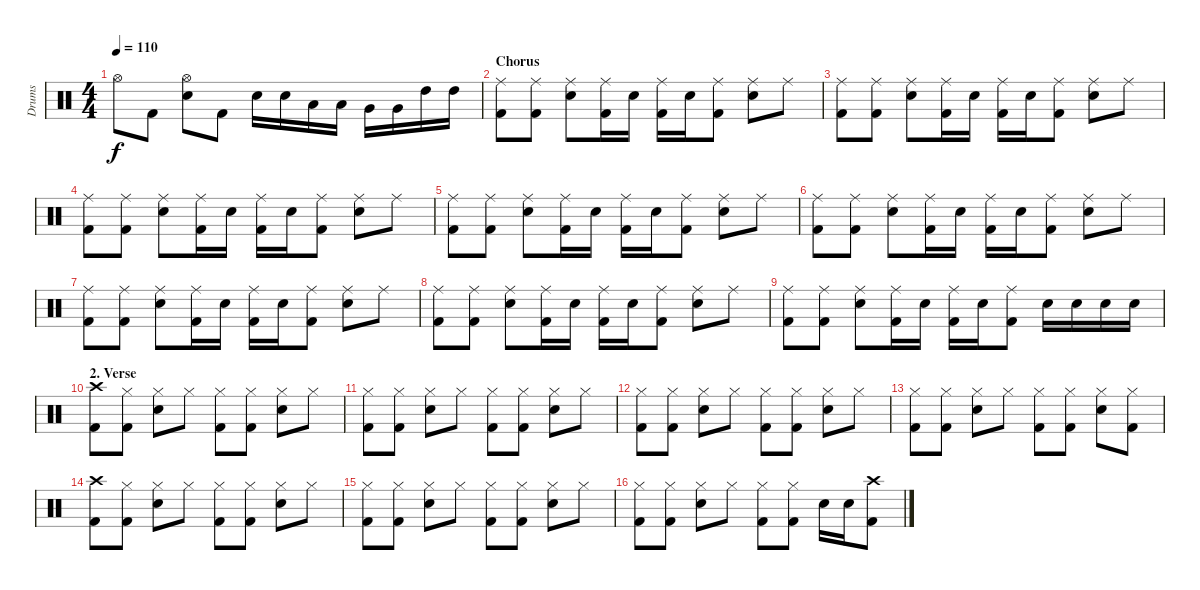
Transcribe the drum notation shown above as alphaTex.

\track ("Drums" "Drums") {instrument percussion}
\staff {score}
\articulation defaults
\ts (4 4)
\tempo 110
\clef neutral
\ks c "Hi-Hat (open)".8{dy f} "Kick (hit) 2".8
("Hi-Hat (open)" "Electric Snare (hit)").8 "Kick (hit) 2".8 "Electric Snare (hit)".16 "Electric Snare (hit)".16 "Low Tom (hit)".16 "Low Tom (hit)".16 "Very Low Tom (hit)".16 "Very Low Tom (hit)".16 "High Tom (hit)".16 "High Tom (hit)".16 |
\section ("" "Chorus")
("Ride (middle)" "Kick (hit) 2").8 ("Ride (middle)" "Kick (hit) 2").8 ("Ride (middle)" "Electric Snare (hit)").8 ("Ride (middle)" "Kick (hit) 2").16 "Electric Snare (hit)".16 ("Ride (middle)" "Kick (hit) 2").16 "Electric Snare (hit)".16 ("Ride (middle)" "Kick (hit) 2").8 ("Ride (middle)" "Electric Snare (hit)").8 "Ride (middle)".8 |
("Ride (middle)" "Kick (hit) 2").8 ("Ride (middle)" "Kick (hit) 2").8 ("Ride (middle)" "Electric Snare (hit)").8 ("Ride (middle)" "Kick (hit) 2").16 "Electric Snare (hit)".16 ("Ride (middle)" "Kick (hit) 2").16 "Electric Snare (hit)".16 ("Ride (middle)" "Kick (hit) 2").8 ("Ride (middle)" "Electric Snare (hit)").8 "Ride (middle)".8 |
("Ride (middle)" "Kick (hit) 2").8 ("Ride (middle)" "Kick (hit) 2").8 ("Ride (middle)" "Electric Snare (hit)").8 ("Ride (middle)" "Kick (hit) 2").16 "Electric Snare (hit)".16 ("Ride (middle)" "Kick (hit) 2").16 "Electric Snare (hit)".16 ("Ride (middle)" "Kick (hit) 2").8 ("Ride (middle)" "Electric Snare (hit)").8 "Ride (middle)".8 |
("Ride (middle)" "Kick (hit) 2").8 ("Ride (middle)" "Kick (hit) 2").8 ("Ride (middle)" "Electric Snare (hit)").8 ("Ride (middle)" "Kick (hit) 2").16 "Electric Snare (hit)".16 ("Ride (middle)" "Kick (hit) 2").16 "Electric Snare (hit)".16 ("Ride (middle)" "Kick (hit) 2").8 ("Ride (middle)" "Electric Snare (hit)").8 "Ride (middle)".8 |
("Ride (middle)" "Kick (hit) 2").8 ("Ride (middle)" "Kick (hit) 2").8 ("Ride (middle)" "Electric Snare (hit)").8 ("Ride (middle)" "Kick (hit) 2").16 "Electric Snare (hit)".16 ("Ride (middle)" "Kick (hit) 2").16 "Electric Snare (hit)".16 ("Ride (middle)" "Kick (hit) 2").8 ("Ride (middle)" "Electric Snare (hit)").8 "Ride (middle)".8 |
("Ride (middle)" "Kick (hit) 2").8 ("Ride (middle)" "Kick (hit) 2").8 ("Ride (middle)" "Electric Snare (hit)").8 ("Ride (middle)" "Kick (hit) 2").16 "Electric Snare (hit)".16 ("Ride (middle)" "Kick (hit) 2").16 "Electric Snare (hit)".16 ("Ride (middle)" "Kick (hit) 2").8 ("Ride (middle)" "Electric Snare (hit)").8 "Ride (middle)".8 |
("Ride (middle)" "Kick (hit) 2").8 ("Ride (middle)" "Kick (hit) 2").8 ("Ride (middle)" "Electric Snare (hit)").8 ("Ride (middle)" "Kick (hit) 2").16 "Electric Snare (hit)".16 ("Ride (middle)" "Kick (hit) 2").16 "Electric Snare (hit)".16 ("Ride (middle)" "Kick (hit) 2").8 ("Ride (middle)" "Electric Snare (hit)").8 "Ride (middle)".8 |
("Ride (middle)" "Kick (hit) 2").8 ("Ride (middle)" "Kick (hit) 2").8 ("Ride (middle)" "Electric Snare (hit)").8 ("Ride (middle)" "Kick (hit) 2").16 "Electric Snare (hit)".16 ("Ride (middle)" "Kick (hit) 2").16 "Electric Snare (hit)".16 ("Ride (middle)" "Kick (hit) 2").8 "Electric Snare (hit)".16 "Electric Snare (hit)".16 "Electric Snare (hit)".16 "Electric Snare (hit)".16 |
\section ("" "2. Verse")
("Crash high (hit)" "Kick (hit) 2").8 ("Hi-Hat (closed)" "Kick (hit) 2").8 ("Hi-Hat (closed)" "Electric Snare (hit)").8 "Hi-Hat (closed)".8 ("Hi-Hat (closed)" "Kick (hit) 2").8 ("Hi-Hat (closed)" "Kick (hit) 2").8 ("Hi-Hat (closed)" "Electric Snare (hit)").8 "Hi-Hat (closed)".8 |
("Hi-Hat (closed)" "Kick (hit) 2").8 ("Hi-Hat (closed)" "Kick (hit) 2").8 ("Hi-Hat (closed)" "Electric Snare (hit)").8 "Hi-Hat (closed)".8 ("Hi-Hat (closed)" "Kick (hit) 2").8 ("Hi-Hat (closed)" "Kick (hit) 2").8 ("Hi-Hat (closed)" "Electric Snare (hit)").8 "Hi-Hat (closed)".8 |
("Hi-Hat (closed)" "Kick (hit) 2").8 ("Hi-Hat (closed)" "Kick (hit) 2").8 ("Hi-Hat (closed)" "Electric Snare (hit)").8 "Hi-Hat (closed)".8 ("Hi-Hat (closed)" "Kick (hit) 2").8 ("Hi-Hat (closed)" "Kick (hit) 2").8 ("Hi-Hat (closed)" "Electric Snare (hit)").8 "Hi-Hat (closed)".8 |
("Hi-Hat (closed)" "Kick (hit) 2").8 ("Hi-Hat (closed)" "Kick (hit) 2").8 ("Hi-Hat (closed)" "Electric Snare (hit)").8 "Hi-Hat (closed)".8 ("Hi-Hat (closed)" "Kick (hit) 2").8 ("Hi-Hat (closed)" "Kick (hit) 2").8 ("Hi-Hat (closed)" "Electric Snare (hit)").8 ("Hi-Hat (closed)" "Kick (hit) 2").8 |
("Crash high (hit)" "Kick (hit) 2").8 ("Hi-Hat (closed)" "Kick (hit) 2").8 ("Hi-Hat (closed)" "Electric Snare (hit)").8 "Hi-Hat (closed)".8 ("Hi-Hat (closed)" "Kick (hit) 2").8 ("Hi-Hat (closed)" "Kick (hit) 2").8 ("Hi-Hat (closed)" "Electric Snare (hit)").8 "Hi-Hat (closed)".8 |
("Hi-Hat (closed)" "Kick (hit) 2").8 ("Hi-Hat (closed)" "Kick (hit) 2").8 ("Hi-Hat (closed)" "Electric Snare (hit)").8 "Hi-Hat (closed)".8 ("Hi-Hat (closed)" "Kick (hit) 2").8 ("Hi-Hat (closed)" "Kick (hit) 2").8 ("Hi-Hat (closed)" "Electric Snare (hit)").8 "Hi-Hat (closed)".8 |
("Hi-Hat (closed)" "Kick (hit) 2").8 ("Hi-Hat (closed)" "Kick (hit) 2").8 ("Hi-Hat (closed)" "Electric Snare (hit)").8 "Hi-Hat (closed)".8 ("Hi-Hat (closed)" "Kick (hit) 2").8 ("Hi-Hat (closed)" "Kick (hit) 2").8 "Electric Snare (hit)".16 "Electric Snare (hit)".16 ("Crash high (hit)" "Kick (hit) 2").8
